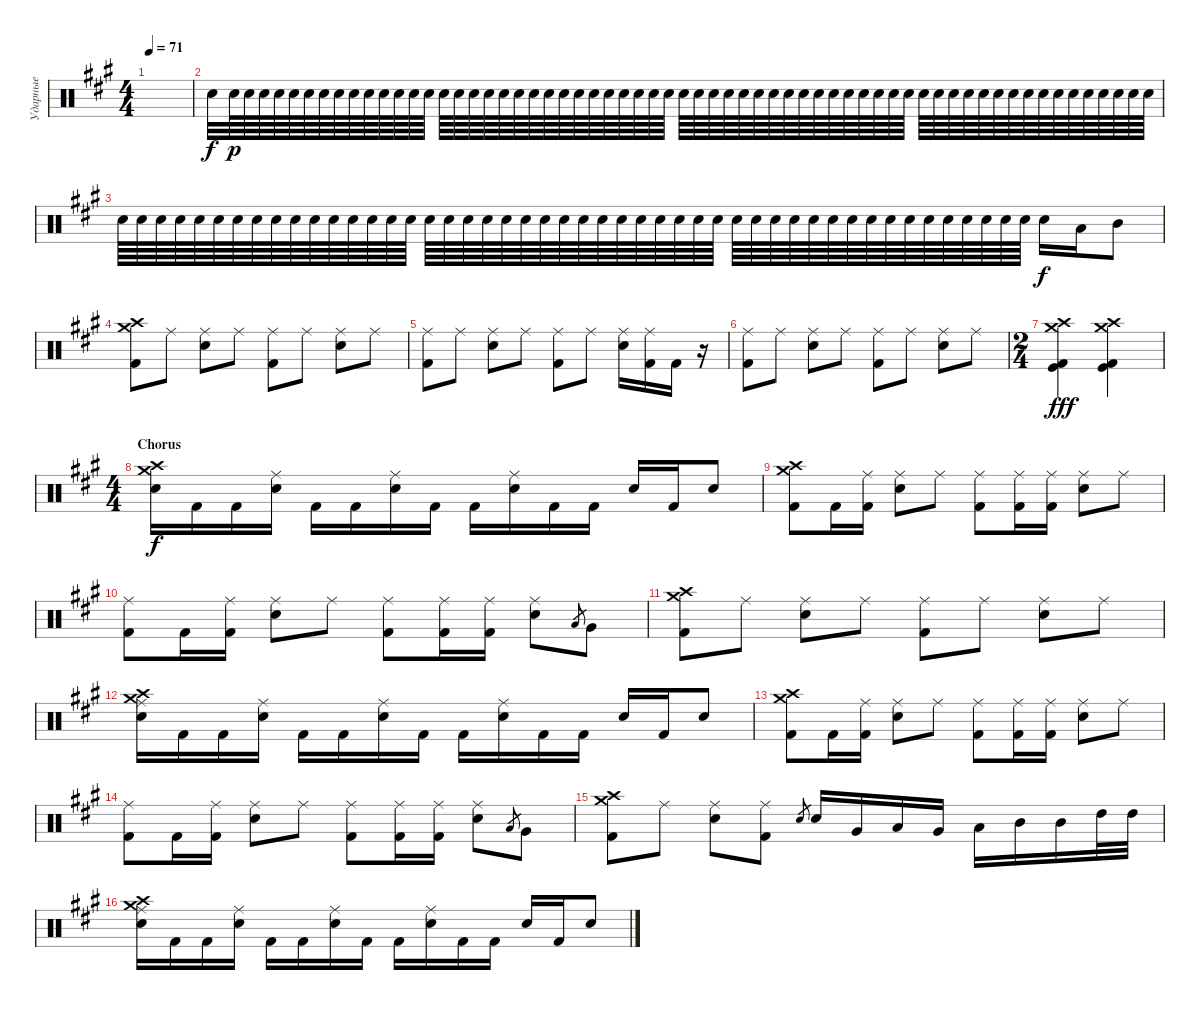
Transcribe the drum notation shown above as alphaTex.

\track ("Ударные" "Ударные") {instrument percussion}
\staff {score}
\articulation defaults
\ts (4 4)
\tempo 71
\clef neutral
\ks f#minor
|
"Electric Snare (hit)".32{dy f} "Electric Snare (hit)".64{dy p} "Electric Snare (hit)".64 "Electric Snare (hit)".64 "Electric Snare (hit)".64 "Electric Snare (hit)".64 "Electric Snare (hit)".64 "Electric Snare (hit)".64 "Electric Snare (hit)".64 "Electric Snare (hit)".64 "Electric Snare (hit)".64 "Electric Snare (hit)".64 "Electric Snare (hit)".64 "Electric Snare (hit)".64 "Electric Snare (hit)".64 "Electric Snare (hit)".64 "Electric Snare (hit)".64 "Electric Snare (hit)".64 "Electric Snare (hit)".64 "Electric Snare (hit)".64 "Electric Snare (hit)".64 "Electric Snare (hit)".64 "Electric Snare (hit)".64 "Electric Snare (hit)".64 "Electric Snare (hit)".64 "Electric Snare (hit)".64 "Electric Snare (hit)".64 "Electric Snare (hit)".64 "Electric Snare (hit)".64 "Electric Snare (hit)".64 "Electric Snare (hit)".64 "Electric Snare (hit)".64 "Electric Snare (hit)".64 "Electric Snare (hit)".64 "Electric Snare (hit)".64 "Electric Snare (hit)".64 "Electric Snare (hit)".64 "Electric Snare (hit)".64 "Electric Snare (hit)".64 "Electric Snare (hit)".64 "Electric Snare (hit)".64 "Electric Snare (hit)".64 "Electric Snare (hit)".64 "Electric Snare (hit)".64 "Electric Snare (hit)".64 "Electric Snare (hit)".64 "Electric Snare (hit)".64 "Electric Snare (hit)".64 "Electric Snare (hit)".64 "Electric Snare (hit)".64 "Electric Snare (hit)".64 "Electric Snare (hit)".64 "Electric Snare (hit)".64 "Electric Snare (hit)".64 "Electric Snare (hit)".64 "Electric Snare (hit)".64 "Electric Snare (hit)".64 "Electric Snare (hit)".64 "Electric Snare (hit)".64 "Electric Snare (hit)".64 "Electric Snare (hit)".64 "Electric Snare (hit)".64 "Electric Snare (hit)".64 |
"Electric Snare (hit)".64 "Electric Snare (hit)".64 "Electric Snare (hit)".64 "Electric Snare (hit)".64 "Electric Snare (hit)".64 "Electric Snare (hit)".64 "Electric Snare (hit)".64 "Electric Snare (hit)".64 "Electric Snare (hit)".64 "Electric Snare (hit)".64 "Electric Snare (hit)".64 "Electric Snare (hit)".64 "Electric Snare (hit)".64 "Electric Snare (hit)".64 "Electric Snare (hit)".64 "Electric Snare (hit)".64 "Electric Snare (hit)".64 "Electric Snare (hit)".64 "Electric Snare (hit)".64 "Electric Snare (hit)".64 "Electric Snare (hit)".64 "Electric Snare (hit)".64 "Electric Snare (hit)".64 "Electric Snare (hit)".64 "Electric Snare (hit)".64 "Electric Snare (hit)".64 "Electric Snare (hit)".64 "Electric Snare (hit)".64 "Electric Snare (hit)".64 "Electric Snare (hit)".64 "Electric Snare (hit)".64 "Electric Snare (hit)".64 "Electric Snare (hit)".64 "Electric Snare (hit)".64 "Electric Snare (hit)".64 "Electric Snare (hit)".64 "Electric Snare (hit)".64 "Electric Snare (hit)".64 "Electric Snare (hit)".64 "Electric Snare (hit)".64 "Electric Snare (hit)".64 "Electric Snare (hit)".64 "Electric Snare (hit)".64 "Electric Snare (hit)".64 "Electric Snare (hit)".64 "Electric Snare (hit)".64 "Electric Snare (hit)".64 "Electric Snare (hit)".64 "Electric Snare (hit)".16{dy f} "Low Tom (hit)".16 "Mid Tom (hit)".8 |
("Crash high (hit)" "Kick (hit) 2" "Crash medium (hit)").8 "Ride (middle)".8 ("Ride (middle)" "Electric Snare (hit)").8 "Ride (middle)".8 ("Ride (middle)" "Kick (hit) 2").8 "Ride (middle)".8 ("Ride (middle)" "Electric Snare (hit)").8 "Ride (middle)".8 |
("Ride (middle)" "Kick (hit) 2").8 "Ride (middle)".8 ("Ride (middle)" "Electric Snare (hit)").8 "Ride (middle)".8 ("Ride (middle)" "Kick (hit) 2").8 "Ride (middle)".8 ("Ride (middle)" "Electric Snare (hit)").16 ("Ride (middle)" "Kick (hit) 2").16 "Kick (hit) 2".16 r.16 |
("Ride (middle)" "Kick (hit) 2").8 "Ride (middle)".8 ("Ride (middle)" "Electric Snare (hit)").8 "Ride (middle)".8 ("Ride (middle)" "Kick (hit) 2").8 "Ride (middle)".8 ("Ride (middle)" "Electric Snare (hit)").8 "Ride (middle)".8 |
\ts (2 4)
("Crash high (hit)" "Crash medium (hit)" "Kick (hit) 2" "Kick (hit)").4{dy fff} ("Crash high (hit)" "Crash medium (hit)" "Kick (hit) 2" "Kick (hit)").4 |
\ts (4 4)
\section ("" "Chorus")
("Crash high (hit)" "Crash medium (hit)" "Electric Snare (hit)").16{dy f} "Kick (hit) 2".16 "Kick (hit) 2".16 ("Ride (middle)" "Electric Snare (hit)").16 "Kick (hit) 2".16 "Kick (hit) 2".16 ("Ride (middle)" "Electric Snare (hit)").16 "Kick (hit) 2".16 "Kick (hit) 2".16 ("Ride (middle)" "Electric Snare (hit)").16 "Kick (hit) 2".16 "Kick (hit) 2".16 "Electric Snare (hit)".16 "Kick (hit) 2".16 "Electric Snare (hit)".8 |
("Crash high (hit)" "Kick (hit) 2" "Crash medium (hit)").8 "Kick (hit) 2".16 ("Ride (middle)" "Kick (hit) 2").16 ("Ride (middle)" "Electric Snare (hit)").8 "Ride (middle)".8 ("Ride (middle)" "Kick (hit) 2").8 ("Ride (middle)" "Kick (hit) 2").16 ("Ride (middle)" "Kick (hit) 2").16 ("Ride (middle)" "Electric Snare (hit)").8 "Ride (middle)".8 |
("Ride (middle)" "Kick (hit) 2").8 "Kick (hit) 2".16 ("Ride (middle)" "Kick (hit) 2").16 ("Ride (middle)" "Electric Snare (hit)").8 "Ride (middle)".8 ("Ride (middle)" "Kick (hit) 2").8 ("Ride (middle)" "Kick (hit) 2").16 ("Ride (middle)" "Kick (hit) 2").16 ("Ride (middle)" "Electric Snare (hit)").8 "Low Floor Tom (hit)".8{gr} "Very Low Tom (hit)".8 |
("Crash high (hit)" "Kick (hit) 2" "Crash medium (hit)").8 "Ride (middle)".8 ("Ride (middle)" "Electric Snare (hit)").8 "Ride (middle)".8 ("Ride (middle)" "Kick (hit) 2").8 "Ride (middle)".8 ("Ride (middle)" "Electric Snare (hit)").8 "Ride (middle)".8 |
("Ride (middle)" "Crash high (hit)" "Electric Snare (hit)" "Crash medium (hit)").16 "Kick (hit) 2".16 "Kick (hit) 2".16 ("Ride (middle)" "Electric Snare (hit)").16 "Kick (hit) 2".16 "Kick (hit) 2".16 ("Ride (middle)" "Electric Snare (hit)").16 "Kick (hit) 2".16 "Kick (hit) 2".16 ("Ride (middle)" "Electric Snare (hit)").16 "Kick (hit) 2".16 "Kick (hit) 2".16 "Electric Snare (hit)".16 "Kick (hit) 2".16 "Electric Snare (hit)".8 |
("Crash high (hit)" "Kick (hit) 2" "Crash medium (hit)").8 "Kick (hit) 2".16 ("Ride (middle)" "Kick (hit) 2").16 ("Ride (middle)" "Electric Snare (hit)").8 "Ride (middle)".8 ("Ride (middle)" "Kick (hit) 2").8 ("Ride (middle)" "Kick (hit) 2").16 ("Ride (middle)" "Kick (hit) 2").16 ("Ride (middle)" "Electric Snare (hit)").8 "Ride (middle)".8 |
("Ride (middle)" "Kick (hit) 2").8 "Kick (hit) 2".16 ("Ride (middle)" "Kick (hit) 2").16 ("Ride (middle)" "Electric Snare (hit)").8 "Ride (middle)".8 ("Ride (middle)" "Kick (hit) 2").8 ("Ride (middle)" "Kick (hit) 2").16 ("Ride (middle)" "Kick (hit) 2").16 ("Ride (middle)" "Electric Snare (hit)").8 "Low Floor Tom (hit)".8{gr} "Very Low Tom (hit)".8 |
("Crash high (hit)" "Kick (hit) 2" "Crash medium (hit)").8 "Ride (middle)".8 ("Ride (middle)" "Electric Snare (hit)").8 ("Ride (middle)" "Kick (hit) 2").8 "Electric Snare (hit)".8{gr} "Electric Snare (hit)".16 "Very Low Tom (hit)".16 "Low Tom (hit)".16 "Very Low Tom (hit)".16 "Low Tom (hit)".16 "Mid Tom (hit)".16 "Mid Tom (hit)".16 "High Tom (hit)".32 "High Tom (hit)".32 |
("Ride (middle)" "Crash high (hit)" "Electric Snare (hit)" "Crash medium (hit)").16 "Kick (hit) 2".16 "Kick (hit) 2".16 ("Ride (middle)" "Electric Snare (hit)").16 "Kick (hit) 2".16 "Kick (hit) 2".16 ("Ride (middle)" "Electric Snare (hit)").16 "Kick (hit) 2".16 "Kick (hit) 2".16 ("Ride (middle)" "Electric Snare (hit)").16 "Kick (hit) 2".16 "Kick (hit) 2".16 "Electric Snare (hit)".16 "Kick (hit) 2".16 "Electric Snare (hit)".8
